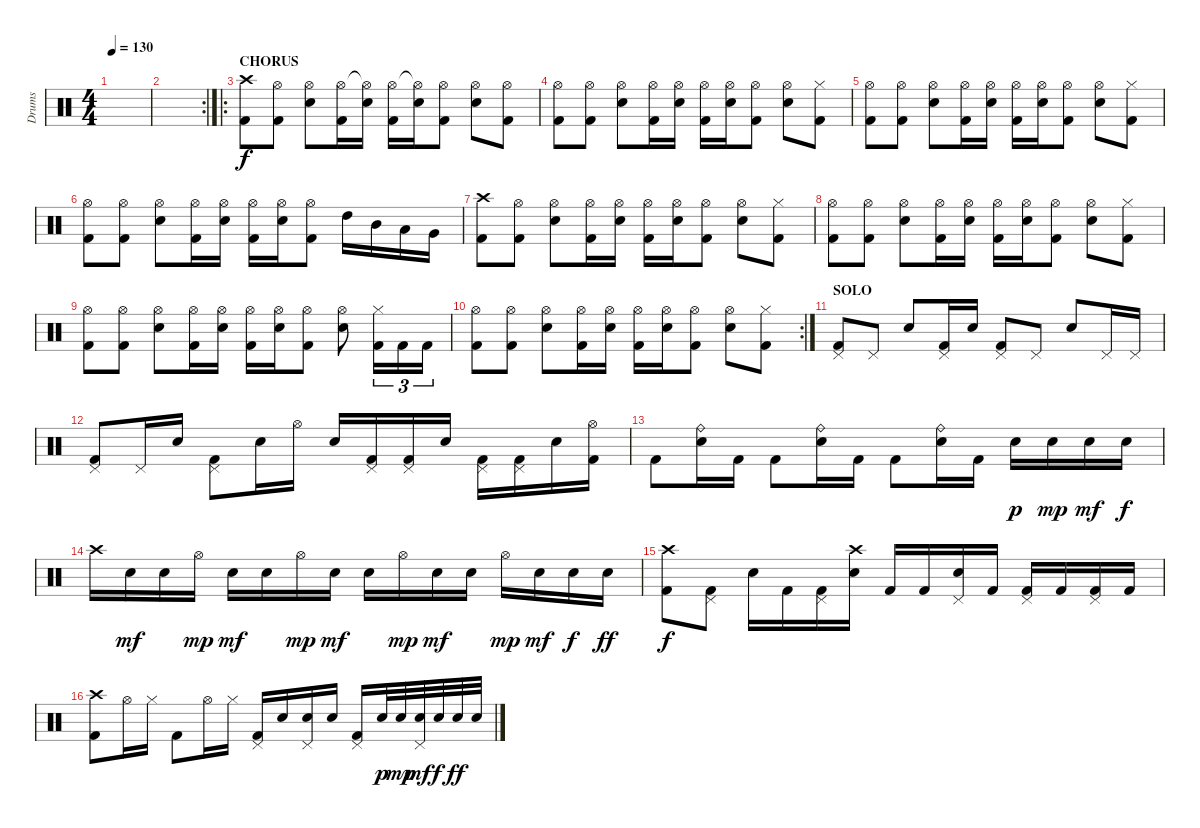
\track ("Drums" "Drums") {instrument percussion}
\staff {score}
\articulation defaults
\ts (4 4)
\tempo 130
\clef neutral
\ks c
|
\rc 2
|
\ro
\section ("" "CHORUS")
("Crash high (hit)" "Kick (hit) 2").8 ("Hi-Hat (open)" "Kick (hit) 2").8 ("Hi-Hat (open)" "Electric Snare (hit)").8 ("Hi-Hat (open)" "Kick (hit) 2").16 ("Hi-Hat (open)"{t} "Electric Snare (hit)").16 ("Hi-Hat (open)" "Kick (hit) 2").16 ("Hi-Hat (open)"{t} "Electric Snare (hit)").16 ("Hi-Hat (open)" "Kick (hit) 2").8 ("Hi-Hat (open)" "Electric Snare (hit)").8 ("Hi-Hat (open)" "Kick (hit) 2").8 |
("Hi-Hat (open)" "Kick (hit) 2").8 ("Hi-Hat (open)" "Kick (hit) 2").8 ("Hi-Hat (open)" "Electric Snare (hit)").8 ("Hi-Hat (open)" "Kick (hit) 2").16 ("Hi-Hat (open)" "Electric Snare (hit)").16 ("Hi-Hat (open)" "Kick (hit) 2").16 ("Hi-Hat (open)" "Electric Snare (hit)").16 ("Hi-Hat (open)" "Kick (hit) 2").8 ("Hi-Hat (open)" "Electric Snare (hit)").8 ("Hi-Hat (closed)" "Kick (hit) 2").8 |
("Hi-Hat (open)" "Kick (hit) 2").8 ("Hi-Hat (open)" "Kick (hit) 2").8 ("Hi-Hat (open)" "Electric Snare (hit)").8 ("Hi-Hat (open)" "Kick (hit) 2").16 ("Hi-Hat (open)" "Electric Snare (hit)").16 ("Hi-Hat (open)" "Kick (hit) 2").16 ("Hi-Hat (open)" "Electric Snare (hit)").16 ("Hi-Hat (open)" "Kick (hit) 2").8 ("Hi-Hat (open)" "Electric Snare (hit)").8 ("Hi-Hat (closed)" "Kick (hit) 2").8 |
("Hi-Hat (open)" "Kick (hit) 2").8 ("Hi-Hat (open)" "Kick (hit) 2").8 ("Hi-Hat (open)" "Electric Snare (hit)").8 ("Hi-Hat (open)" "Kick (hit) 2").16 ("Hi-Hat (open)" "Electric Snare (hit)").16 ("Hi-Hat (open)" "Kick (hit) 2").16 ("Hi-Hat (open)" "Electric Snare (hit)").16 ("Hi-Hat (open)" "Kick (hit) 2").8 "High Tom (hit)".16 "Mid Tom (hit)".16 "Low Tom (hit)".16 "Very Low Tom (hit)".16 |
("Crash high (hit)" "Kick (hit) 2").8 ("Hi-Hat (open)" "Kick (hit) 2").8 ("Hi-Hat (open)" "Electric Snare (hit)").8 ("Hi-Hat (open)" "Kick (hit) 2").16 ("Hi-Hat (open)" "Electric Snare (hit)").16 ("Hi-Hat (open)" "Kick (hit) 2").16 ("Hi-Hat (open)" "Electric Snare (hit)").16 ("Hi-Hat (open)" "Kick (hit) 2").8 ("Hi-Hat (open)" "Electric Snare (hit)").8 ("Hi-Hat (closed)" "Kick (hit) 2").8 |
("Hi-Hat (open)" "Kick (hit) 2").8 ("Hi-Hat (open)" "Kick (hit) 2").8 ("Hi-Hat (open)" "Electric Snare (hit)").8 ("Hi-Hat (open)" "Kick (hit) 2").16 ("Hi-Hat (open)" "Electric Snare (hit)").16 ("Hi-Hat (open)" "Kick (hit) 2").16 ("Hi-Hat (open)" "Electric Snare (hit)").16 ("Hi-Hat (open)" "Kick (hit) 2").8 ("Hi-Hat (open)" "Electric Snare (hit)").8 ("Hi-Hat (closed)" "Kick (hit) 2").8 |
("Hi-Hat (open)" "Kick (hit) 2").8 ("Hi-Hat (open)" "Kick (hit) 2").8 ("Hi-Hat (open)" "Electric Snare (hit)").8 ("Hi-Hat (open)" "Kick (hit) 2").16 ("Hi-Hat (open)" "Electric Snare (hit)").16 ("Hi-Hat (open)" "Kick (hit) 2").16 ("Hi-Hat (open)" "Electric Snare (hit)").16 ("Hi-Hat (open)" "Kick (hit) 2").8 ("Hi-Hat (open)" "Electric Snare (hit)").8 ("Hi-Hat (closed)" "Kick (hit) 2").16{tu (3 2)} "Kick (hit) 2".16{tu (3 2)} "Kick (hit) 2".16{tu (3 2)} |
\rc 2
("Hi-Hat (open)" "Kick (hit) 2").8 ("Hi-Hat (open)" "Kick (hit) 2").8 ("Hi-Hat (open)" "Electric Snare (hit)").8 ("Hi-Hat (open)" "Kick (hit) 2").16 ("Hi-Hat (open)" "Electric Snare (hit)").16 ("Hi-Hat (open)" "Kick (hit) 2").16 ("Hi-Hat (open)" "Electric Snare (hit)").16 ("Hi-Hat (open)" "Kick (hit) 2").8 ("Hi-Hat (open)" "Electric Snare (hit)").8 ("Hi-Hat (closed)" "Kick (hit) 2").8 |
\section ("" "SOLO")
("Pedal Hi-Hat (hit)" "Kick (hit) 2").8 "Pedal Hi-Hat (hit)".8 "Electric Snare (hit)".8 ("Pedal Hi-Hat (hit)" "Kick (hit) 2").16 "Electric Snare (hit)".16 ("Pedal Hi-Hat (hit)" "Kick (hit) 2").8 "Pedal Hi-Hat (hit)".8 "Electric Snare (hit)".8 "Pedal Hi-Hat (hit)".16 "Pedal Hi-Hat (hit)".16 |
("Pedal Hi-Hat (hit)" "Kick (hit) 2").8 "Pedal Hi-Hat (hit)".16 "Electric Snare (hit)".16 ("Pedal Hi-Hat (hit)" "Kick (hit) 2").8 "Electric Snare (hit)".16 "Hi-Hat (open)".16 "Electric Snare (hit)".16 ("Pedal Hi-Hat (hit)" "Kick (hit) 2").16 ("Pedal Hi-Hat (hit)" "Kick (hit) 2").16 "Electric Snare (hit)".16 ("Pedal Hi-Hat (hit)" "Kick (hit) 2").16 ("Pedal Hi-Hat (hit)" "Kick (hit) 2").16 "Electric Snare (hit)".16 ("Hi-Hat (open)" "Kick (hit) 2").16 |
"Kick (hit) 2".8 ("Ride (bell)" "Electric Snare (hit)").16 "Kick (hit) 2".16 "Kick (hit) 2".8 ("Ride (bell)" "Electric Snare (hit)").16 "Kick (hit) 2".16 "Kick (hit) 2".8 ("Ride (bell)" "Electric Snare (hit)").16 "Kick (hit) 2".16 "Electric Snare (hit)".16{dy p} "Electric Snare (hit)".16{dy mp} "Electric Snare (hit)".16{dy mf} "Electric Snare (hit)".16{dy f} |
"Crash high (hit)".16 "Electric Snare (hit)".16{dy mf} "Electric Snare (hit)".16 "Hi-Hat (open)".16{dy mp} "Electric Snare (hit)".16{dy mf} "Electric Snare (hit)".16 "Hi-Hat (open)".16{dy mp} "Electric Snare (hit)".16{dy mf} "Electric Snare (hit)".16 "Hi-Hat (open)".16{dy mp} "Electric Snare (hit)".16{dy mf} "Electric Snare (hit)".16 "Hi-Hat (open)".16{dy mp} "Electric Snare (hit)".16{dy mf} "Electric Snare (hit)".16{dy f} "Electric Snare (hit)".16{dy ff} |
("Crash high (hit)" "Kick (hit) 2").8{dy f} ("Pedal Hi-Hat (hit)" "Kick (hit) 2").8 "Electric Snare (hit)".16 "Kick (hit) 2".16 ("Pedal Hi-Hat (hit)" "Kick (hit) 2").16 ("Crash high (hit)" "Electric Snare (hit)").16 "Kick (hit) 2".16 "Kick (hit) 2".16 ("Pedal Hi-Hat (hit)" "Electric Snare (hit)").16 "Kick (hit) 2".16 ("Pedal Hi-Hat (hit)" "Kick (hit) 2").16 "Kick (hit) 2".16 ("Pedal Hi-Hat (hit)" "Kick (hit) 2").16 "Kick (hit) 2".16 |
("Crash high (hit)" "Kick (hit) 2").8 "Hi-Hat (open)".16 "Hi-Hat (closed)".16 "Kick (hit) 2".8 "Hi-Hat (open)".16 "Hi-Hat (closed)".16 ("Pedal Hi-Hat (hit)" "Kick (hit) 2").16 "Electric Snare (hit)".16 ("Pedal Hi-Hat (hit)" "Electric Snare (hit)").16 "Electric Snare (hit)".16 ("Pedal Hi-Hat (hit)" "Kick (hit) 2").16 "Electric Snare (hit)".32{dy p} "Electric Snare (hit)".32{dy mp} ("Pedal Hi-Hat (hit)" "Electric Snare (hit)").32{dy mf} "Electric Snare (hit)".32{dy f} "Electric Snare (hit)".32{dy ff} "Electric Snare (hit)".32
